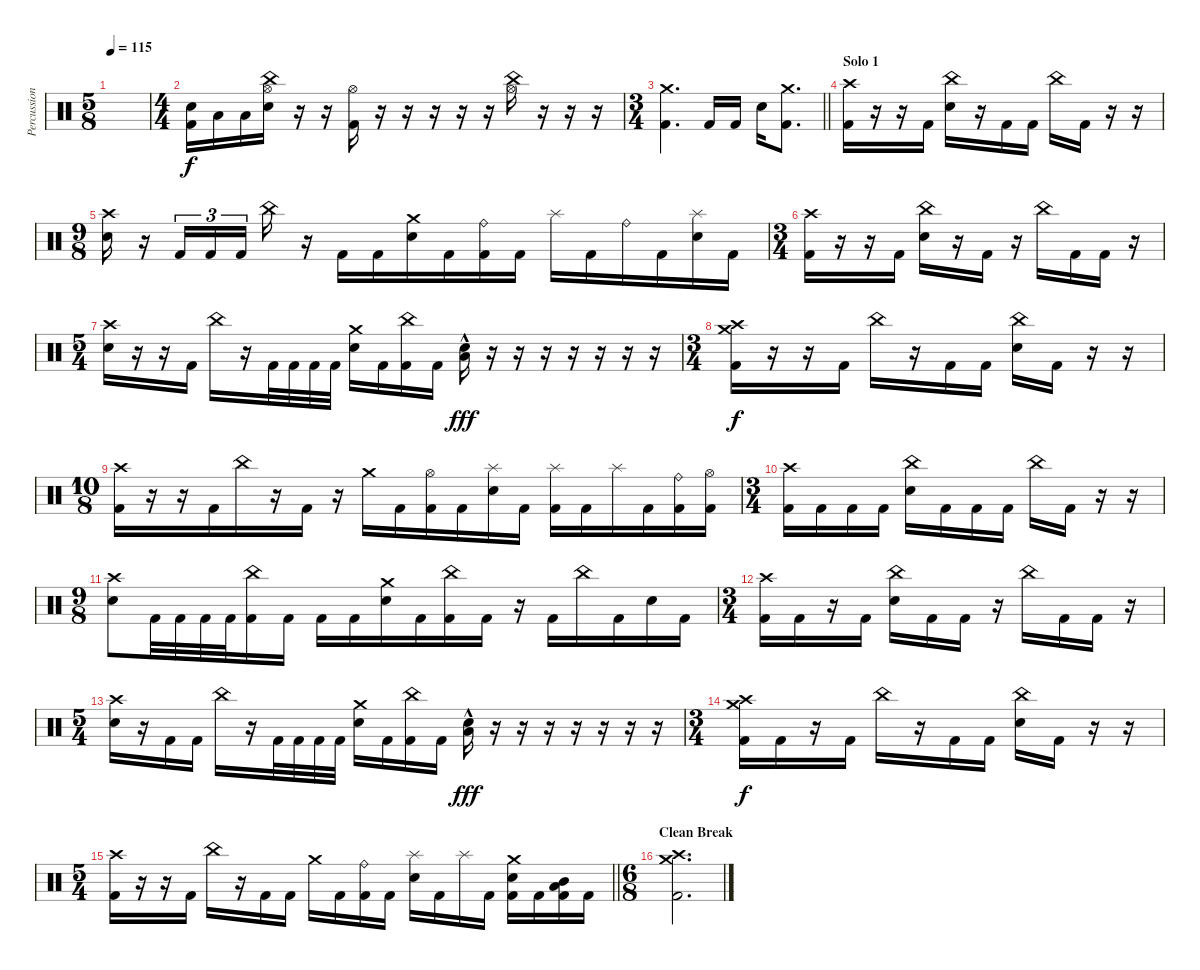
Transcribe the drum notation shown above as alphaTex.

\track ("Percussion" "Percussion") {instrument percussion}
\staff {score}
\articulation defaults
\ts (5 8)
\tempo 115
\clef neutral
\ks c
|
\ts (4 4)
("Electric Snare (hit)" "Kick (hit) 2").16 "Low Tom (hit)".16 "Low Floor Tom (hit)".16 ("Hi-Hat (open)" "China (hit)" "Electric Snare (hit)").16 r.16 r.16 ("Hi-Hat (open)" "Kick (hit) 2").16 r.16 r.16 r.16 r.16 r.16 ("Hi-Hat (open)" "China (hit)").16 r.16 r.16 r.16 |
\ts (3 4)
\barLineRight lightlight
("Crash medium (hit)" "Kick (hit) 2").4{d} "Kick (hit) 2".16 "Kick (hit) 2".16 "Electric Snare (hit)".16 ("Crash medium (hit)" "Kick (hit) 2").8{d} |
\section ("" "Solo 1")
("Crash high (hit)" "Kick (hit) 2").16 r.16 r.16 "Kick (hit) 2".16 ("China (hit)" "Electric Snare (hit)").16 r.16 "Kick (hit) 2".16 "Kick (hit) 2".16 "China (hit)".16 "Kick (hit) 2".16 r.16 r.16 |
\ts (9 8)
("Crash high (hit)" "Electric Snare (hit)").16 r.16 "Kick (hit) 2".16{tu (3 2)} "Kick (hit) 2".16{tu (3 2)} "Kick (hit) 2".16{tu (3 2) beam splitsecondary} "China (hit)".16 r.16 "Kick (hit) 2".16 "Kick (hit) 2".16 ("Crash medium (hit)" "Electric Snare (hit)").16 "Kick (hit) 2".16 ("Ride (bell)" "Kick (hit) 2").16 "Kick (hit) 2".16 "Splash (hit)".16 "Kick (hit) 2".16 "Ride (bell)".16 "Kick (hit) 2".16 ("Splash (hit)" "Electric Snare (hit)").16 "Kick (hit) 2".16 |
\ts (3 4)
("Crash high (hit)" "Kick (hit) 2").16 r.16 r.16 "Kick (hit) 2".16 ("China (hit)" "Electric Snare (hit)").16 r.16 "Kick (hit) 2".16 r.16 "China (hit)".16 "Kick (hit) 2".16 "Kick (hit) 2".16 r.16 |
\ts (5 4)
("Crash high (hit)" "Electric Snare (hit)").16 r.16 r.16 "Kick (hit) 2".16 "China (hit)".16 r.16 "Kick (hit) 2".32 "Kick (hit) 2".32 "Kick (hit) 2".32 "Kick (hit) 2".32 ("Crash medium (hit)" "Electric Snare (hit)").16 "Kick (hit) 2".16 ("China (hit)" "Kick (hit) 2").16 "Kick (hit) 2".16 ("Electric Snare (hit)"{hac} "Low Floor Tom (hit)"{hac}).16{dy fff} r.16 r.16 r.16 r.16 r.16 r.16 r.16 |
\ts (3 4)
("Crash medium (hit)" "Crash high (hit)" "Kick (hit) 2").16{dy f} r.16 r.16 "Kick (hit) 2".16 "China (hit)".16 r.16 "Kick (hit) 2".16 "Kick (hit) 2".16 ("China (hit)" "Electric Snare (hit)").16 "Kick (hit) 2".16 r.16 r.16 |
\ts (10 8)
("Crash high (hit)" "Kick (hit) 2").16 r.16 r.16 "Kick (hit) 2".16 "China (hit)".16 r.16 "Kick (hit) 2".16 r.16 "Crash medium (hit)".16 "Kick (hit) 2".16 ("Hi-Hat (open)" "Kick (hit) 2").16 "Kick (hit) 2".16 ("Splash (hit)" "Electric Snare (hit)").16 "Kick (hit) 2".16 ("Splash (hit)" "Kick (hit) 2").16 "Kick (hit) 2".16 "Splash (hit)".16 "Kick (hit) 2".16 ("Ride (bell)" "Kick (hit) 2").16 ("Hi-Hat (open)" "Kick (hit) 2").16 |
\ts (3 4)
("Crash high (hit)" "Kick (hit) 2").16 "Kick (hit) 2".16 "Kick (hit) 2".16 "Kick (hit) 2".16 ("China (hit)" "Electric Snare (hit)").16 "Kick (hit) 2".16 "Kick (hit) 2".16 "Kick (hit) 2".16 "China (hit)".16 "Kick (hit) 2".16 r.16 r.16 |
\ts (9 8)
("Crash high (hit)" "Electric Snare (hit)").8 "Kick (hit) 2".32 "Kick (hit) 2".32 "Kick (hit) 2".32 "Kick (hit) 2".32 ("China (hit)" "Kick (hit) 2").16 "Kick (hit) 2".16 "Kick (hit) 2".16 "Kick (hit) 2".16 ("Crash medium (hit)" "Electric Snare (hit)").16 "Kick (hit) 2".16 ("China (hit)" "Kick (hit) 2").16 "Kick (hit) 2".16 r.16 "Kick (hit) 2".16 "China (hit)".16 "Kick (hit) 2".16 "Electric Snare (hit)".16 "Kick (hit) 2".16 |
\ts (3 4)
("Crash high (hit)" "Kick (hit) 2").16 "Kick (hit) 2".16 r.16 "Kick (hit) 2".16 ("China (hit)" "Electric Snare (hit)").16 "Kick (hit) 2".16 "Kick (hit) 2".16 r.16 "China (hit)".16 "Kick (hit) 2".16 "Kick (hit) 2".16 r.16 |
\ts (5 4)
("Crash high (hit)" "Electric Snare (hit)").16 r.16 "Kick (hit) 2".16 "Kick (hit) 2".16 "China (hit)".16 r.16 "Kick (hit) 2".32 "Kick (hit) 2".32 "Kick (hit) 2".32 "Kick (hit) 2".32 ("Crash medium (hit)" "Electric Snare (hit)").16 "Kick (hit) 2".16 ("China (hit)" "Kick (hit) 2").16 "Kick (hit) 2".16 ("Electric Snare (hit)"{hac} "Low Floor Tom (hit)"{hac}).16{dy fff} r.16 r.16 r.16 r.16 r.16 r.16 r.16 |
\ts (3 4)
("Crash medium (hit)" "Crash high (hit)" "Kick (hit) 2").16{dy f} "Kick (hit) 2".16 r.16 "Kick (hit) 2".16 "China (hit)".16 r.16 "Kick (hit) 2".16 "Kick (hit) 2".16 ("China (hit)" "Electric Snare (hit)").16 "Kick (hit) 2".16 r.16 r.16 |
\ts (5 4)
\barLineRight lightlight
("Crash high (hit)" "Kick (hit) 2").16 r.16 r.16 "Kick (hit) 2".16 "China (hit)".16 r.16 "Kick (hit) 2".16 "Kick (hit) 2".16 "Crash medium (hit)".16 "Kick (hit) 2".16 ("Ride (bell)" "Kick (hit) 2").16 "Kick (hit) 2".16 ("Splash (hit)" "Electric Snare (hit)").16 "Kick (hit) 2".16 "Splash (hit)".16 "Kick (hit) 2".16 ("Crash medium (hit)" "Electric Snare (hit)" "Kick (hit) 2").16 "Kick (hit) 2".16 ("Mid Tom (hit)" "Low Tom (hit)" "Kick (hit) 2").16 "Kick (hit) 2".16 |
\ts (6 8)
\section ("" "Clean Break")
("Crash medium (hit)" "Crash high (hit)" "Kick (hit) 2").2{d}
